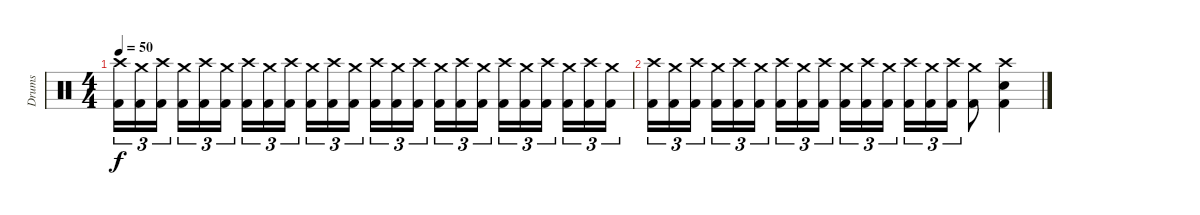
\track ("Drums" "Drums") {instrument percussion}
\staff {score}
\articulation defaults
\ts (4 4)
\tempo 50
\clef neutral
\ks c
("Crash high (hit)" "Kick (hit) 2").16{tu (3 2) dy f} ("Crash medium (hit)" "Kick (hit) 2").16{tu (3 2)} ("Crash high (hit)" "Kick (hit) 2").16{tu (3 2)} ("Crash medium (hit)" "Kick (hit) 2").16{tu (3 2)} ("Crash high (hit)" "Kick (hit) 2").16{tu (3 2)} ("Crash medium (hit)" "Kick (hit) 2").16{tu (3 2)} ("Crash high (hit)" "Kick (hit) 2").16{tu (3 2)} ("Crash medium (hit)" "Kick (hit) 2").16{tu (3 2)} ("Crash high (hit)" "Kick (hit) 2").16{tu (3 2)} ("Crash medium (hit)" "Kick (hit) 2").16{tu (3 2)} ("Crash high (hit)" "Kick (hit) 2").16{tu (3 2)} ("Crash medium (hit)" "Kick (hit) 2").16{tu (3 2)} ("Crash high (hit)" "Kick (hit) 2").16{tu (3 2)} ("Crash medium (hit)" "Kick (hit) 2").16{tu (3 2)} ("Crash high (hit)" "Kick (hit) 2").16{tu (3 2)} ("Crash medium (hit)" "Kick (hit) 2").16{tu (3 2)} ("Crash high (hit)" "Kick (hit) 2").16{tu (3 2)} ("Crash medium (hit)" "Kick (hit) 2").16{tu (3 2)} ("Crash high (hit)" "Kick (hit) 2").16{tu (3 2)} ("Crash medium (hit)" "Kick (hit) 2").16{tu (3 2)} ("Crash high (hit)" "Kick (hit) 2").16{tu (3 2)} ("Crash medium (hit)" "Kick (hit) 2").16{tu (3 2)} ("Crash high (hit)" "Kick (hit) 2").16{tu (3 2)} ("Crash medium (hit)" "Kick (hit) 2").16{tu (3 2)} |
("Crash high (hit)" "Kick (hit) 2").16{tu (3 2)} ("Crash medium (hit)" "Kick (hit) 2").16{tu (3 2)} ("Crash high (hit)" "Kick (hit) 2").16{tu (3 2)} ("Crash medium (hit)" "Kick (hit) 2").16{tu (3 2)} ("Crash high (hit)" "Kick (hit) 2").16{tu (3 2)} ("Crash medium (hit)" "Kick (hit) 2").16{tu (3 2)} ("Crash high (hit)" "Kick (hit) 2").16{tu (3 2)} ("Crash medium (hit)" "Kick (hit) 2").16{tu (3 2)} ("Crash high (hit)" "Kick (hit) 2").16{tu (3 2)} ("Crash medium (hit)" "Kick (hit) 2").16{tu (3 2)} ("Crash high (hit)" "Kick (hit) 2").16{tu (3 2)} ("Crash medium (hit)" "Kick (hit) 2").16{tu (3 2)} ("Crash high (hit)" "Kick (hit) 2").16{tu (3 2)} ("Crash medium (hit)" "Kick (hit) 2").16{tu (3 2)} ("Crash high (hit)" "Kick (hit) 2").16{tu (3 2)} ("Crash medium (hit)" "Kick (hit) 2").8 ("Crash high (hit)" "Snare (hit) 2" "Kick (hit) 2").4
